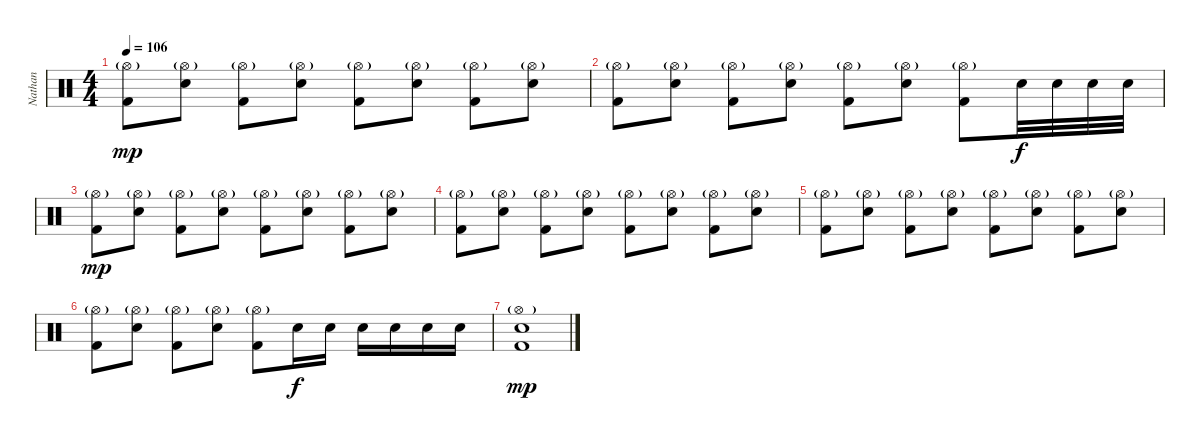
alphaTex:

\track ("Nathan" "Nathan") {instrument percussion}
\staff {score}
\articulation defaults
\ts (4 4)
\tempo 106
\clef neutral
\ks c
("Hi-Hat (open)"{g} "Kick (hit) 2").8{dy mp} ("Hi-Hat (open)"{g} "Snare (hit) 2").8 ("Hi-Hat (open)"{g} "Kick (hit) 2").8 ("Hi-Hat (open)"{g} "Snare (hit) 2").8 ("Hi-Hat (open)"{g} "Kick (hit) 2").8 ("Hi-Hat (open)"{g} "Snare (hit) 2").8 ("Hi-Hat (open)"{g} "Kick (hit) 2").8 ("Hi-Hat (open)"{g} "Snare (hit) 2").8 |
("Hi-Hat (open)"{g} "Kick (hit) 2").8 ("Hi-Hat (open)"{g} "Snare (hit) 2").8 ("Hi-Hat (open)"{g} "Kick (hit) 2").8 ("Hi-Hat (open)"{g} "Snare (hit) 2").8 ("Hi-Hat (open)"{g} "Kick (hit) 2").8 ("Hi-Hat (open)"{g} "Snare (hit) 2").8 ("Hi-Hat (open)"{g} "Kick (hit) 2").8 "Snare (hit) 2".32{dy f} "Snare (hit) 2".32 "Snare (hit) 2".32 "Snare (hit) 2".32 |
("Hi-Hat (open)"{g} "Kick (hit) 2").8{dy mp} ("Hi-Hat (open)"{g} "Snare (hit) 2").8 ("Hi-Hat (open)"{g} "Kick (hit) 2").8 ("Hi-Hat (open)"{g} "Snare (hit) 2").8 ("Hi-Hat (open)"{g} "Kick (hit) 2").8 ("Hi-Hat (open)"{g} "Snare (hit) 2").8 ("Hi-Hat (open)"{g} "Kick (hit) 2").8 ("Hi-Hat (open)"{g} "Snare (hit) 2").8 |
("Hi-Hat (open)"{g} "Kick (hit) 2").8 ("Hi-Hat (open)"{g} "Snare (hit) 2").8 ("Hi-Hat (open)"{g} "Kick (hit) 2").8 ("Hi-Hat (open)"{g} "Snare (hit) 2").8 ("Hi-Hat (open)"{g} "Kick (hit) 2").8 ("Hi-Hat (open)"{g} "Snare (hit) 2").8 ("Hi-Hat (open)"{g} "Kick (hit) 2").8 ("Hi-Hat (open)"{g} "Snare (hit) 2").8 |
("Hi-Hat (open)"{g} "Kick (hit) 2").8 ("Hi-Hat (open)"{g} "Snare (hit) 2").8 ("Hi-Hat (open)"{g} "Kick (hit) 2").8 ("Hi-Hat (open)"{g} "Snare (hit) 2").8 ("Hi-Hat (open)"{g} "Kick (hit) 2").8 ("Hi-Hat (open)"{g} "Snare (hit) 2").8 ("Hi-Hat (open)"{g} "Kick (hit) 2").8 ("Hi-Hat (open)"{g} "Snare (hit) 2").8 |
("Hi-Hat (open)"{g} "Kick (hit) 2").8 ("Hi-Hat (open)"{g} "Snare (hit) 2").8 ("Hi-Hat (open)"{g} "Kick (hit) 2").8 ("Hi-Hat (open)"{g} "Snare (hit) 2").8 ("Hi-Hat (open)"{g} "Kick (hit) 2").8 "Snare (hit) 2".16{dy f} "Snare (hit) 2".16 "Snare (hit) 2".16 "Snare (hit) 2".16 "Snare (hit) 2".16 "Snare (hit) 2".16 |
("Hi-Hat (open)"{g} "Snare (hit) 2" "Kick (hit) 2").1{dy mp}
